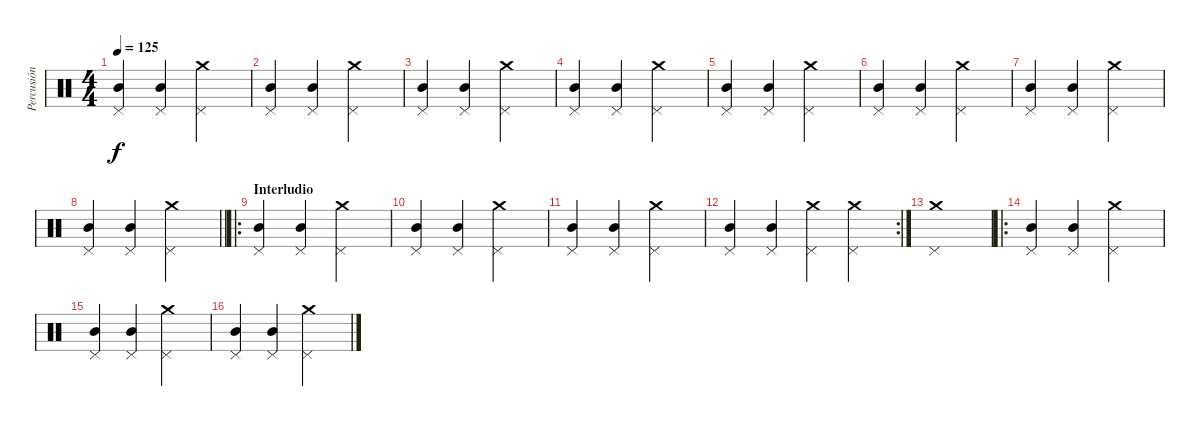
\track ("Percusión" "Percusión") {instrument percussion}
\staff {score}
\articulation defaults
\ts (4 4)
\tempo 125
\clef neutral
\ks c
("Pedal Hi-Hat (hit)" "Mid Tom (hit)").4{dy f} ("Pedal Hi-Hat (hit)" "Mid Tom (hit)").4 ("Crash medium (hit)" "Pedal Hi-Hat (hit)").2 |
("Pedal Hi-Hat (hit)" "Mid Tom (hit)").4 ("Pedal Hi-Hat (hit)" "Mid Tom (hit)").4 ("Crash medium (hit)" "Pedal Hi-Hat (hit)").2 |
("Pedal Hi-Hat (hit)" "Mid Tom (hit)").4 ("Pedal Hi-Hat (hit)" "Mid Tom (hit)").4 ("Crash medium (hit)" "Pedal Hi-Hat (hit)").2 |
("Pedal Hi-Hat (hit)" "Mid Tom (hit)").4 ("Pedal Hi-Hat (hit)" "Mid Tom (hit)").4 ("Crash medium (hit)" "Pedal Hi-Hat (hit)").2 |
("Pedal Hi-Hat (hit)" "Mid Tom (hit)").4 ("Pedal Hi-Hat (hit)" "Mid Tom (hit)").4 ("Crash medium (hit)" "Pedal Hi-Hat (hit)").2 |
("Pedal Hi-Hat (hit)" "Mid Tom (hit)").4 ("Pedal Hi-Hat (hit)" "Mid Tom (hit)").4 ("Crash medium (hit)" "Pedal Hi-Hat (hit)").2 |
("Pedal Hi-Hat (hit)" "Mid Tom (hit)").4 ("Pedal Hi-Hat (hit)" "Mid Tom (hit)").4 ("Crash medium (hit)" "Pedal Hi-Hat (hit)").2 |
\barLineRight lightlight
("Pedal Hi-Hat (hit)" "Mid Tom (hit)").4 ("Pedal Hi-Hat (hit)" "Mid Tom (hit)").4 ("Crash medium (hit)" "Pedal Hi-Hat (hit)").2 |
\ro
\section ("" "Interludio")
("Pedal Hi-Hat (hit)" "Mid Tom (hit)").4 ("Pedal Hi-Hat (hit)" "Mid Tom (hit)").4 ("Crash medium (hit)" "Pedal Hi-Hat (hit)").2 |
("Pedal Hi-Hat (hit)" "Mid Tom (hit)").4 ("Pedal Hi-Hat (hit)" "Mid Tom (hit)").4 ("Crash medium (hit)" "Pedal Hi-Hat (hit)").2 |
("Pedal Hi-Hat (hit)" "Mid Tom (hit)").4 ("Pedal Hi-Hat (hit)" "Mid Tom (hit)").4 ("Crash medium (hit)" "Pedal Hi-Hat (hit)").2 |
\rc 2
("Pedal Hi-Hat (hit)" "Mid Tom (hit)").4 ("Pedal Hi-Hat (hit)" "Mid Tom (hit)").4 ("Crash medium (hit)" "Pedal Hi-Hat (hit)").4 ("Crash medium (hit)" "Pedal Hi-Hat (hit)").4 |
("Pedal Hi-Hat (hit)" "Crash medium (hit)").1 |
\ro
("Pedal Hi-Hat (hit)" "Mid Tom (hit)").4 ("Pedal Hi-Hat (hit)" "Mid Tom (hit)").4 ("Crash medium (hit)" "Pedal Hi-Hat (hit)").2 |
("Pedal Hi-Hat (hit)" "Mid Tom (hit)").4 ("Pedal Hi-Hat (hit)" "Mid Tom (hit)").4 ("Crash medium (hit)" "Pedal Hi-Hat (hit)").2 |
("Pedal Hi-Hat (hit)" "Mid Tom (hit)").4 ("Pedal Hi-Hat (hit)" "Mid Tom (hit)").4 ("Crash medium (hit)" "Pedal Hi-Hat (hit)").2
